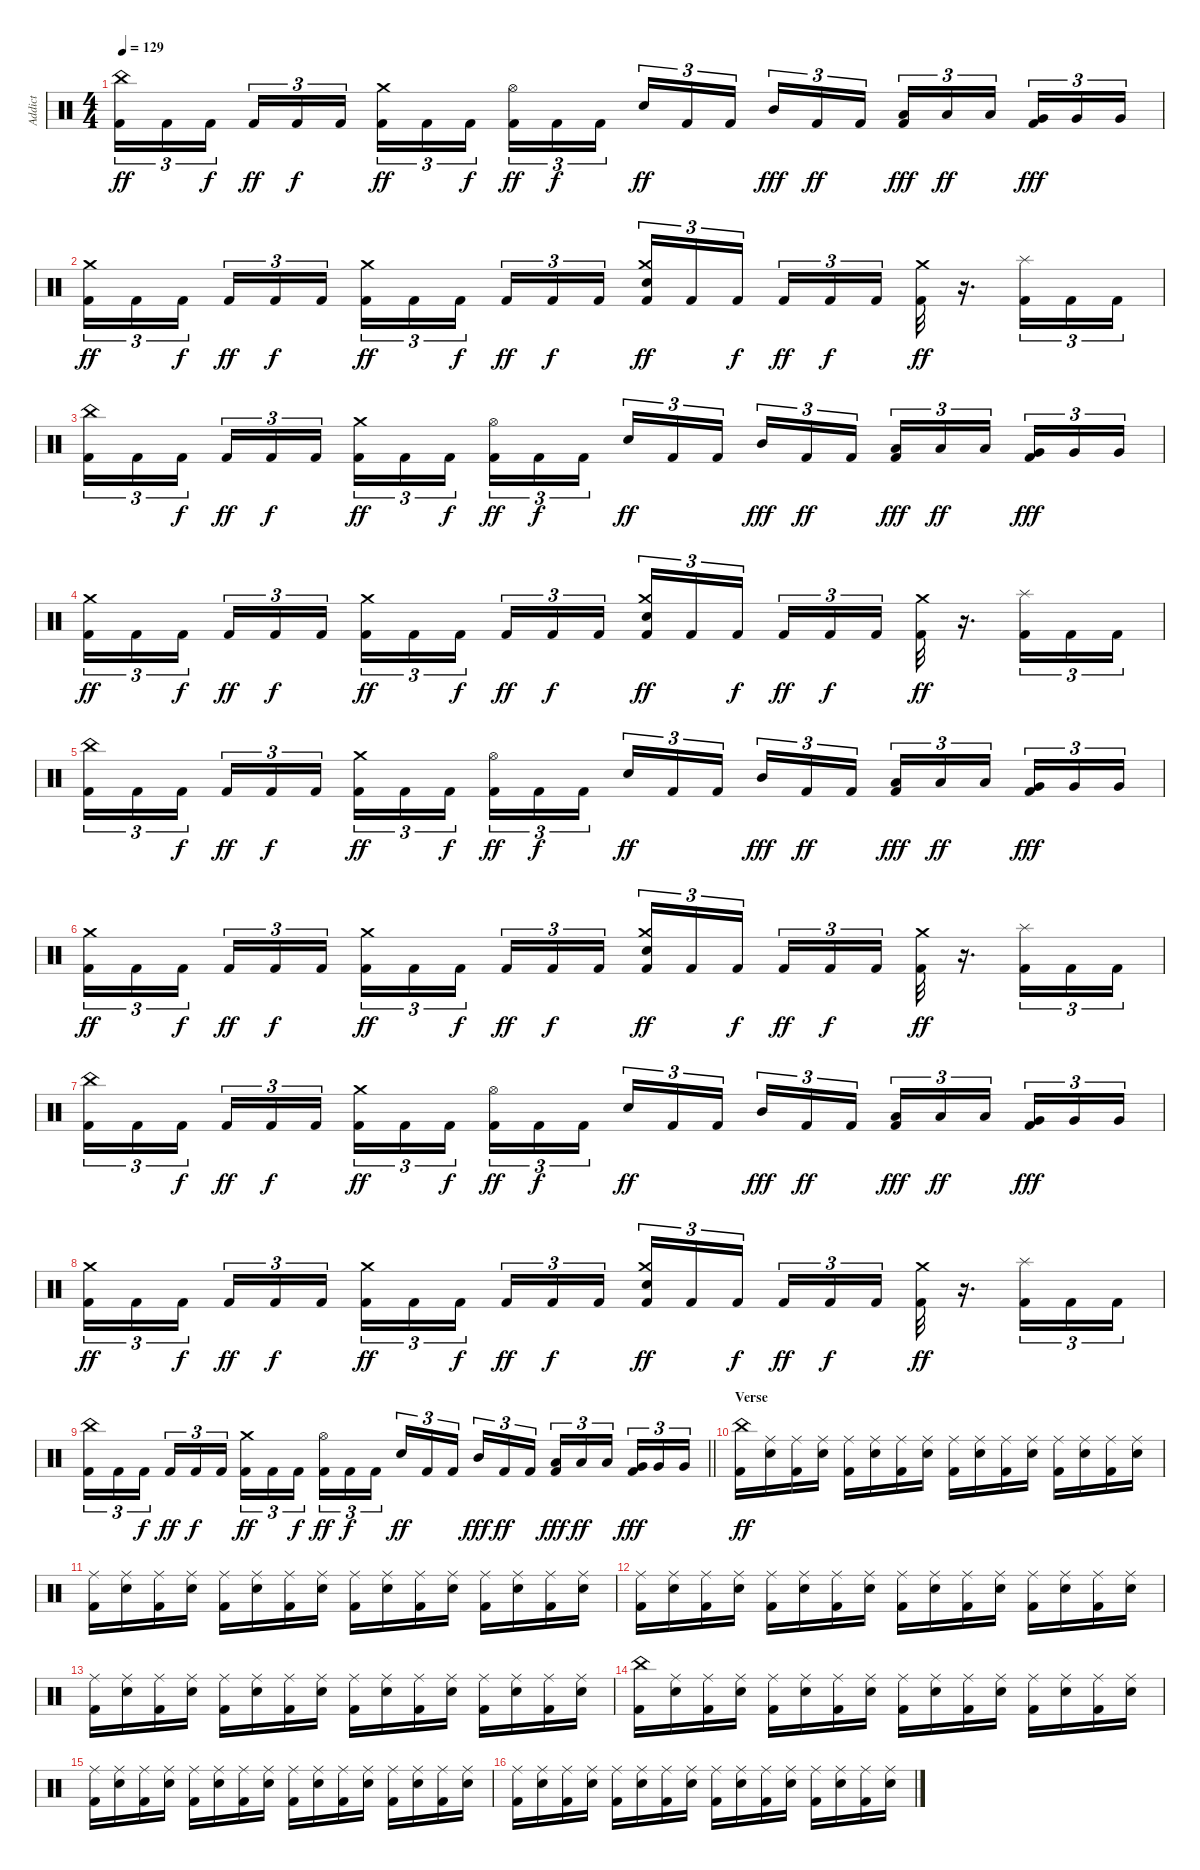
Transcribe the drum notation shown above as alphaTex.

\track ("Addict" "Addict") {instrument percussion}
\staff {score}
\articulation defaults
\ts (4 4)
\tempo 129
\clef neutral
\ks c
("Kick (hit) 2" "China (hit)").16{tu (3 2) dy ff} "Kick (hit) 2".16{tu (3 2)} "Kick (hit) 2".16{tu (3 2) dy f beam splitsecondary} "Kick (hit) 2".16{tu (3 2) dy ff} "Kick (hit) 2".16{tu (3 2) dy f} "Kick (hit) 2".16{tu (3 2)} ("Kick (hit) 2" "Crash medium (hit)").16{tu (3 2) dy ff} "Kick (hit) 2".16{tu (3 2)} "Kick (hit) 2".16{tu (3 2) dy f beam splitsecondary} ("Kick (hit) 2" "Hi-Hat (open)").16{tu (3 2) dy ff} "Kick (hit) 2".16{tu (3 2) dy f} "Kick (hit) 2".16{tu (3 2)} "Snare (hit) 2".16{tu (3 2) dy ff} "Kick (hit) 2".16{tu (3 2)} "Kick (hit) 2".16{tu (3 2) beam splitsecondary} "Mid Tom (hit)".16{tu (3 2) dy fff} "Kick (hit) 2".16{tu (3 2) dy ff} "Kick (hit) 2".16{tu (3 2)} ("Kick (hit) 2" "Low Tom (hit)").16{tu (3 2) dy fff} "Low Tom (hit)".16{tu (3 2) dy ff} "Low Tom (hit)".16{tu (3 2) beam splitsecondary} ("Kick (hit) 2" "Very Low Tom (hit)").16{tu (3 2) dy fff} "Very Low Tom (hit)".16{tu (3 2)} "Very Low Tom (hit)".16{tu (3 2)} |
("Kick (hit) 2" "Crash medium (hit)").16{tu (3 2) dy ff} "Kick (hit) 2".16{tu (3 2)} "Kick (hit) 2".16{tu (3 2) dy f beam splitsecondary} "Kick (hit) 2".16{tu (3 2) dy ff} "Kick (hit) 2".16{tu (3 2) dy f} "Kick (hit) 2".16{tu (3 2)} ("Kick (hit) 2" "Crash medium (hit)").16{tu (3 2) dy ff} "Kick (hit) 2".16{tu (3 2)} "Kick (hit) 2".16{tu (3 2) dy f beam splitsecondary} "Kick (hit) 2".16{tu (3 2) dy ff} "Kick (hit) 2".16{tu (3 2) dy f} "Kick (hit) 2".16{tu (3 2)} ("Kick (hit) 2" "Snare (hit) 2" "Crash medium (hit)").16{tu (3 2) dy ff} "Kick (hit) 2".16{tu (3 2)} "Kick (hit) 2".16{tu (3 2) dy f beam splitsecondary} "Kick (hit) 2".16{tu (3 2) dy ff} "Kick (hit) 2".16{tu (3 2) dy f} "Kick (hit) 2".16{tu (3 2)} ("Kick (hit) 2" "Crash medium (hit)").32{dy ff} r.16{d} ("Kick (hit) 2" "Splash (hit)").16{tu (3 2)} "Kick (hit) 2".16{tu (3 2)} "Kick (hit) 2".16{tu (3 2)} |
("Kick (hit) 2" "China (hit)").16{tu (3 2)} "Kick (hit) 2".16{tu (3 2)} "Kick (hit) 2".16{tu (3 2) dy f beam splitsecondary} "Kick (hit) 2".16{tu (3 2) dy ff} "Kick (hit) 2".16{tu (3 2) dy f} "Kick (hit) 2".16{tu (3 2)} ("Kick (hit) 2" "Crash medium (hit)").16{tu (3 2) dy ff} "Kick (hit) 2".16{tu (3 2)} "Kick (hit) 2".16{tu (3 2) dy f beam splitsecondary} ("Kick (hit) 2" "Hi-Hat (open)").16{tu (3 2) dy ff} "Kick (hit) 2".16{tu (3 2) dy f} "Kick (hit) 2".16{tu (3 2)} "Snare (hit) 2".16{tu (3 2) dy ff} "Kick (hit) 2".16{tu (3 2)} "Kick (hit) 2".16{tu (3 2) beam splitsecondary} "Mid Tom (hit)".16{tu (3 2) dy fff} "Kick (hit) 2".16{tu (3 2) dy ff} "Kick (hit) 2".16{tu (3 2)} ("Kick (hit) 2" "Low Tom (hit)").16{tu (3 2) dy fff} "Low Tom (hit)".16{tu (3 2) dy ff} "Low Tom (hit)".16{tu (3 2) beam splitsecondary} ("Kick (hit) 2" "Very Low Tom (hit)").16{tu (3 2) dy fff} "Very Low Tom (hit)".16{tu (3 2)} "Very Low Tom (hit)".16{tu (3 2)} |
("Kick (hit) 2" "Crash medium (hit)").16{tu (3 2) dy ff} "Kick (hit) 2".16{tu (3 2)} "Kick (hit) 2".16{tu (3 2) dy f beam splitsecondary} "Kick (hit) 2".16{tu (3 2) dy ff} "Kick (hit) 2".16{tu (3 2) dy f} "Kick (hit) 2".16{tu (3 2)} ("Kick (hit) 2" "Crash medium (hit)").16{tu (3 2) dy ff} "Kick (hit) 2".16{tu (3 2)} "Kick (hit) 2".16{tu (3 2) dy f beam splitsecondary} "Kick (hit) 2".16{tu (3 2) dy ff} "Kick (hit) 2".16{tu (3 2) dy f} "Kick (hit) 2".16{tu (3 2)} ("Kick (hit) 2" "Snare (hit) 2" "Crash medium (hit)").16{tu (3 2) dy ff} "Kick (hit) 2".16{tu (3 2)} "Kick (hit) 2".16{tu (3 2) dy f beam splitsecondary} "Kick (hit) 2".16{tu (3 2) dy ff} "Kick (hit) 2".16{tu (3 2) dy f} "Kick (hit) 2".16{tu (3 2)} ("Kick (hit) 2" "Crash medium (hit)").32{dy ff} r.16{d} ("Kick (hit) 2" "Splash (hit)").16{tu (3 2)} "Kick (hit) 2".16{tu (3 2)} "Kick (hit) 2".16{tu (3 2)} |
("Kick (hit) 2" "China (hit)").16{tu (3 2)} "Kick (hit) 2".16{tu (3 2)} "Kick (hit) 2".16{tu (3 2) dy f beam splitsecondary} "Kick (hit) 2".16{tu (3 2) dy ff} "Kick (hit) 2".16{tu (3 2) dy f} "Kick (hit) 2".16{tu (3 2)} ("Kick (hit) 2" "Crash medium (hit)").16{tu (3 2) dy ff} "Kick (hit) 2".16{tu (3 2)} "Kick (hit) 2".16{tu (3 2) dy f beam splitsecondary} ("Kick (hit) 2" "Hi-Hat (open)").16{tu (3 2) dy ff} "Kick (hit) 2".16{tu (3 2) dy f} "Kick (hit) 2".16{tu (3 2)} "Snare (hit) 2".16{tu (3 2) dy ff} "Kick (hit) 2".16{tu (3 2)} "Kick (hit) 2".16{tu (3 2) beam splitsecondary} "Mid Tom (hit)".16{tu (3 2) dy fff} "Kick (hit) 2".16{tu (3 2) dy ff} "Kick (hit) 2".16{tu (3 2)} ("Kick (hit) 2" "Low Tom (hit)").16{tu (3 2) dy fff} "Low Tom (hit)".16{tu (3 2) dy ff} "Low Tom (hit)".16{tu (3 2) beam splitsecondary} ("Kick (hit) 2" "Very Low Tom (hit)").16{tu (3 2) dy fff} "Very Low Tom (hit)".16{tu (3 2)} "Very Low Tom (hit)".16{tu (3 2)} |
("Kick (hit) 2" "Crash medium (hit)").16{tu (3 2) dy ff} "Kick (hit) 2".16{tu (3 2)} "Kick (hit) 2".16{tu (3 2) dy f beam splitsecondary} "Kick (hit) 2".16{tu (3 2) dy ff} "Kick (hit) 2".16{tu (3 2) dy f} "Kick (hit) 2".16{tu (3 2)} ("Kick (hit) 2" "Crash medium (hit)").16{tu (3 2) dy ff} "Kick (hit) 2".16{tu (3 2)} "Kick (hit) 2".16{tu (3 2) dy f beam splitsecondary} "Kick (hit) 2".16{tu (3 2) dy ff} "Kick (hit) 2".16{tu (3 2) dy f} "Kick (hit) 2".16{tu (3 2)} ("Kick (hit) 2" "Snare (hit) 2" "Crash medium (hit)").16{tu (3 2) dy ff} "Kick (hit) 2".16{tu (3 2)} "Kick (hit) 2".16{tu (3 2) dy f beam splitsecondary} "Kick (hit) 2".16{tu (3 2) dy ff} "Kick (hit) 2".16{tu (3 2) dy f} "Kick (hit) 2".16{tu (3 2)} ("Kick (hit) 2" "Crash medium (hit)").32{dy ff} r.16{d} ("Kick (hit) 2" "Splash (hit)").16{tu (3 2)} "Kick (hit) 2".16{tu (3 2)} "Kick (hit) 2".16{tu (3 2)} |
("Kick (hit) 2" "China (hit)").16{tu (3 2)} "Kick (hit) 2".16{tu (3 2)} "Kick (hit) 2".16{tu (3 2) dy f beam splitsecondary} "Kick (hit) 2".16{tu (3 2) dy ff} "Kick (hit) 2".16{tu (3 2) dy f} "Kick (hit) 2".16{tu (3 2)} ("Kick (hit) 2" "Crash medium (hit)").16{tu (3 2) dy ff} "Kick (hit) 2".16{tu (3 2)} "Kick (hit) 2".16{tu (3 2) dy f beam splitsecondary} ("Kick (hit) 2" "Hi-Hat (open)").16{tu (3 2) dy ff} "Kick (hit) 2".16{tu (3 2) dy f} "Kick (hit) 2".16{tu (3 2)} "Snare (hit) 2".16{tu (3 2) dy ff} "Kick (hit) 2".16{tu (3 2)} "Kick (hit) 2".16{tu (3 2) beam splitsecondary} "Mid Tom (hit)".16{tu (3 2) dy fff} "Kick (hit) 2".16{tu (3 2) dy ff} "Kick (hit) 2".16{tu (3 2)} ("Kick (hit) 2" "Low Tom (hit)").16{tu (3 2) dy fff} "Low Tom (hit)".16{tu (3 2) dy ff} "Low Tom (hit)".16{tu (3 2) beam splitsecondary} ("Kick (hit) 2" "Very Low Tom (hit)").16{tu (3 2) dy fff} "Very Low Tom (hit)".16{tu (3 2)} "Very Low Tom (hit)".16{tu (3 2)} |
("Kick (hit) 2" "Crash medium (hit)").16{tu (3 2) dy ff} "Kick (hit) 2".16{tu (3 2)} "Kick (hit) 2".16{tu (3 2) dy f beam splitsecondary} "Kick (hit) 2".16{tu (3 2) dy ff} "Kick (hit) 2".16{tu (3 2) dy f} "Kick (hit) 2".16{tu (3 2)} ("Kick (hit) 2" "Crash medium (hit)").16{tu (3 2) dy ff} "Kick (hit) 2".16{tu (3 2)} "Kick (hit) 2".16{tu (3 2) dy f beam splitsecondary} "Kick (hit) 2".16{tu (3 2) dy ff} "Kick (hit) 2".16{tu (3 2) dy f} "Kick (hit) 2".16{tu (3 2)} ("Kick (hit) 2" "Snare (hit) 2" "Crash medium (hit)").16{tu (3 2) dy ff} "Kick (hit) 2".16{tu (3 2)} "Kick (hit) 2".16{tu (3 2) dy f beam splitsecondary} "Kick (hit) 2".16{tu (3 2) dy ff} "Kick (hit) 2".16{tu (3 2) dy f} "Kick (hit) 2".16{tu (3 2)} ("Kick (hit) 2" "Crash medium (hit)").32{dy ff} r.16{d} ("Kick (hit) 2" "Splash (hit)").16{tu (3 2)} "Kick (hit) 2".16{tu (3 2)} "Kick (hit) 2".16{tu (3 2)} |
\barLineRight lightlight
("Kick (hit) 2" "China (hit)").16{tu (3 2)} "Kick (hit) 2".16{tu (3 2)} "Kick (hit) 2".16{tu (3 2) dy f beam splitsecondary} "Kick (hit) 2".16{tu (3 2) dy ff} "Kick (hit) 2".16{tu (3 2) dy f} "Kick (hit) 2".16{tu (3 2)} ("Kick (hit) 2" "Crash medium (hit)").16{tu (3 2) dy ff} "Kick (hit) 2".16{tu (3 2)} "Kick (hit) 2".16{tu (3 2) dy f beam splitsecondary} ("Kick (hit) 2" "Hi-Hat (open)").16{tu (3 2) dy ff} "Kick (hit) 2".16{tu (3 2) dy f} "Kick (hit) 2".16{tu (3 2)} "Snare (hit) 2".16{tu (3 2) dy ff} "Kick (hit) 2".16{tu (3 2)} "Kick (hit) 2".16{tu (3 2) beam splitsecondary} "Mid Tom (hit)".16{tu (3 2) dy fff} "Kick (hit) 2".16{tu (3 2) dy ff} "Kick (hit) 2".16{tu (3 2)} ("Kick (hit) 2" "Low Tom (hit)").16{tu (3 2) dy fff} "Low Tom (hit)".16{tu (3 2) dy ff} "Low Tom (hit)".16{tu (3 2) beam splitsecondary} ("Kick (hit) 2" "Very Low Tom (hit)").16{tu (3 2) dy fff} "Very Low Tom (hit)".16{tu (3 2)} "Very Low Tom (hit)".16{tu (3 2)} |
\section ("" "Verse")
("Kick (hit) 2" "China (hit)").16{dy ff} ("Snare (hit) 2" "Ride (middle)").16 ("Kick (hit) 2" "Ride (middle)").16 ("Snare (hit) 2" "Ride (middle)").16 ("Kick (hit) 2" "Ride (middle)").16 ("Snare (hit) 2" "Ride (middle)").16 ("Kick (hit) 2" "Ride (middle)").16 ("Snare (hit) 2" "Ride (middle)").16 ("Kick (hit) 2" "Ride (middle)").16 ("Snare (hit) 2" "Ride (middle)").16 ("Kick (hit) 2" "Ride (middle)").16 ("Snare (hit) 2" "Ride (middle)").16 ("Kick (hit) 2" "Ride (middle)").16 ("Snare (hit) 2" "Ride (middle)").16 ("Kick (hit) 2" "Ride (middle)").16 ("Snare (hit) 2" "Ride (middle)").16 |
("Kick (hit) 2" "Ride (middle)").16 ("Snare (hit) 2" "Ride (middle)").16 ("Kick (hit) 2" "Ride (middle)").16 ("Snare (hit) 2" "Ride (middle)").16 ("Kick (hit) 2" "Ride (middle)").16 ("Snare (hit) 2" "Ride (middle)").16 ("Kick (hit) 2" "Ride (middle)").16 ("Snare (hit) 2" "Ride (middle)").16 ("Kick (hit) 2" "Ride (middle)").16 ("Snare (hit) 2" "Ride (middle)").16 ("Kick (hit) 2" "Ride (middle)").16 ("Snare (hit) 2" "Ride (middle)").16 ("Kick (hit) 2" "Ride (middle)").16 ("Snare (hit) 2" "Ride (middle)").16 ("Kick (hit) 2" "Ride (middle)").16 ("Snare (hit) 2" "Ride (middle)").16 |
("Kick (hit) 2" "Ride (middle)").16 ("Snare (hit) 2" "Ride (middle)").16 ("Kick (hit) 2" "Ride (middle)").16 ("Snare (hit) 2" "Ride (middle)").16 ("Kick (hit) 2" "Ride (middle)").16 ("Snare (hit) 2" "Ride (middle)").16 ("Kick (hit) 2" "Ride (middle)").16 ("Snare (hit) 2" "Ride (middle)").16 ("Kick (hit) 2" "Ride (middle)").16 ("Snare (hit) 2" "Ride (middle)").16 ("Kick (hit) 2" "Ride (middle)").16 ("Snare (hit) 2" "Ride (middle)").16 ("Kick (hit) 2" "Ride (middle)").16 ("Snare (hit) 2" "Ride (middle)").16 ("Kick (hit) 2" "Ride (middle)").16 ("Snare (hit) 2" "Ride (middle)").16 |
("Kick (hit) 2" "Ride (middle)").16 ("Snare (hit) 2" "Ride (middle)").16 ("Kick (hit) 2" "Ride (middle)").16 ("Snare (hit) 2" "Ride (middle)").16 ("Kick (hit) 2" "Ride (middle)").16 ("Snare (hit) 2" "Ride (middle)").16 ("Kick (hit) 2" "Ride (middle)").16 ("Snare (hit) 2" "Ride (middle)").16 ("Kick (hit) 2" "Ride (middle)").16 ("Snare (hit) 2" "Ride (middle)").16 ("Kick (hit) 2" "Ride (middle)").16 ("Snare (hit) 2" "Ride (middle)").16 ("Kick (hit) 2" "Ride (middle)").16 ("Snare (hit) 2" "Ride (middle)").16 ("Kick (hit) 2" "Ride (middle)").16 ("Snare (hit) 2" "Ride (middle)").16 |
("Kick (hit) 2" "China (hit)").16 ("Snare (hit) 2" "Ride (middle)").16 ("Kick (hit) 2" "Ride (middle)").16 ("Snare (hit) 2" "Ride (middle)").16 ("Kick (hit) 2" "Ride (middle)").16 ("Snare (hit) 2" "Ride (middle)").16 ("Kick (hit) 2" "Ride (middle)").16 ("Snare (hit) 2" "Ride (middle)").16 ("Kick (hit) 2" "Ride (middle)").16 ("Snare (hit) 2" "Ride (middle)").16 ("Kick (hit) 2" "Ride (middle)").16 ("Snare (hit) 2" "Ride (middle)").16 ("Kick (hit) 2" "Ride (middle)").16 ("Snare (hit) 2" "Ride (middle)").16 ("Kick (hit) 2" "Ride (middle)").16 ("Snare (hit) 2" "Ride (middle)").16 |
("Kick (hit) 2" "Ride (middle)").16 ("Snare (hit) 2" "Ride (middle)").16 ("Kick (hit) 2" "Ride (middle)").16 ("Snare (hit) 2" "Ride (middle)").16 ("Kick (hit) 2" "Ride (middle)").16 ("Snare (hit) 2" "Ride (middle)").16 ("Kick (hit) 2" "Ride (middle)").16 ("Snare (hit) 2" "Ride (middle)").16 ("Kick (hit) 2" "Ride (middle)").16 ("Snare (hit) 2" "Ride (middle)").16 ("Kick (hit) 2" "Ride (middle)").16 ("Snare (hit) 2" "Ride (middle)").16 ("Kick (hit) 2" "Ride (middle)").16 ("Snare (hit) 2" "Ride (middle)").16 ("Kick (hit) 2" "Ride (middle)").16 ("Snare (hit) 2" "Ride (middle)").16 |
("Kick (hit) 2" "Ride (middle)").16 ("Snare (hit) 2" "Ride (middle)").16 ("Kick (hit) 2" "Ride (middle)").16 ("Snare (hit) 2" "Ride (middle)").16 ("Kick (hit) 2" "Ride (middle)").16 ("Snare (hit) 2" "Ride (middle)").16 ("Kick (hit) 2" "Ride (middle)").16 ("Snare (hit) 2" "Ride (middle)").16 ("Kick (hit) 2" "Ride (middle)").16 ("Snare (hit) 2" "Ride (middle)").16 ("Kick (hit) 2" "Ride (middle)").16 ("Snare (hit) 2" "Ride (middle)").16 ("Kick (hit) 2" "Ride (middle)").16 ("Snare (hit) 2" "Ride (middle)").16 ("Kick (hit) 2" "Ride (middle)").16 ("Snare (hit) 2" "Ride (middle)").16
